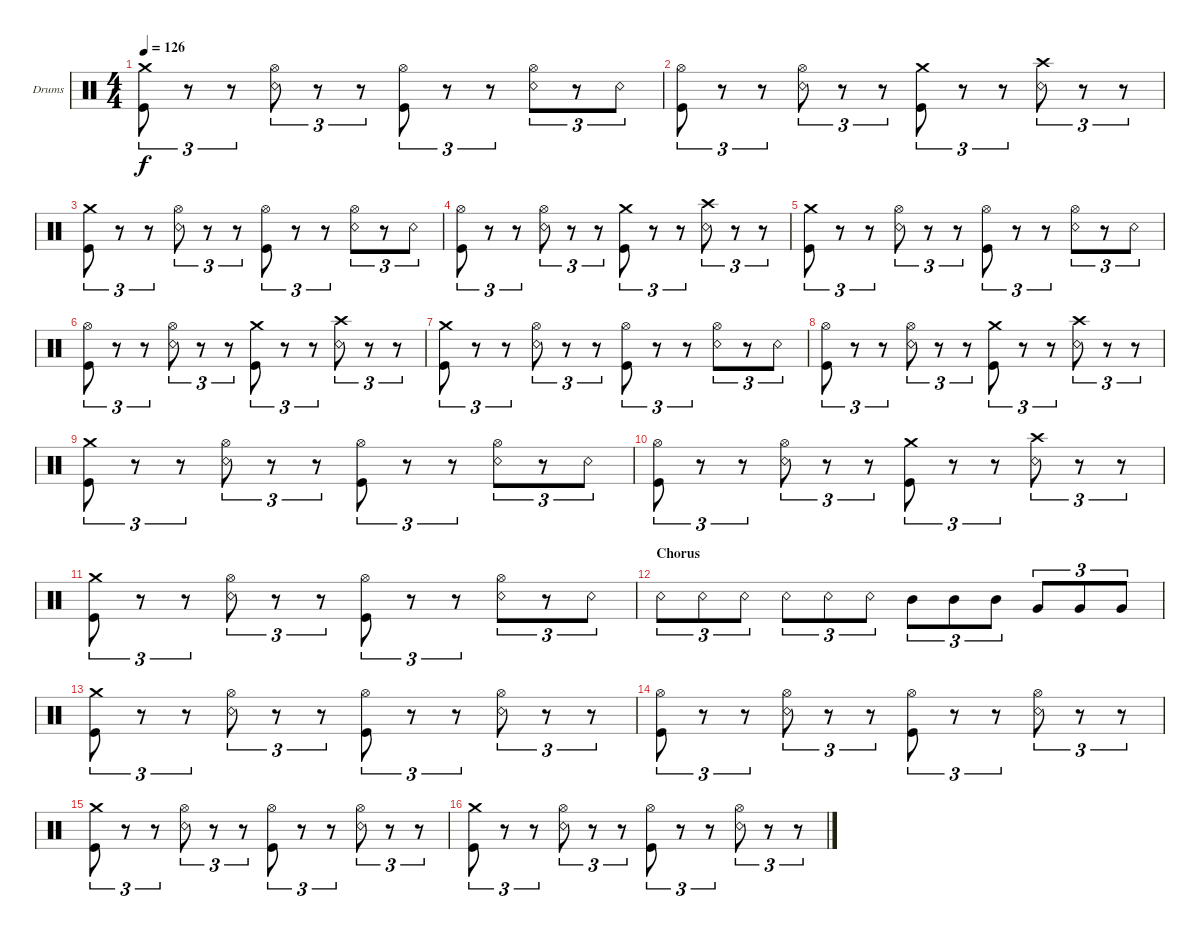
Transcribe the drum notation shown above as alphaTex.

\defaultSystemsLayout 4
\bracketExtendMode groupsimilarinstruments
\firstSystemTrackNameOrientation horizontal
\otherSystemsTrackNameOrientation horizontal
\track ("Dominic Howard" "Drums") {instrument percussion}
\staff {score}
\articulation defaults
\ts (4 4)
\tempo 126
\clef neutral
\ks c
("Kick (hit)" "Crash medium (hit)").8{tu (3 2) dy f} r.8{tu (3 2)} r.8{tu (3 2)} ("Snare (rim shot)" "Hi-Hat (open)").8{tu (3 2)} r.8{tu (3 2)} r.8{tu (3 2)} ("Kick (hit)" "Hi-Hat (open)").8{tu (3 2)} r.8{tu (3 2)} r.8{tu (3 2)} ("Snare (rim shot)" "Hi-Hat (open)").8{tu (3 2)} r.8{tu (3 2)} "Snare (rim shot)".8{tu (3 2)} |
("Kick (hit)" "Hi-Hat (open)").8{tu (3 2)} r.8{tu (3 2)} r.8{tu (3 2)} ("Snare (rim shot)" "Hi-Hat (open)").8{tu (3 2)} r.8{tu (3 2)} r.8{tu (3 2)} ("Kick (hit)" "Crash medium (hit)").8{tu (3 2)} r.8{tu (3 2)} r.8{tu (3 2)} ("Snare (rim shot)" "Crash high (hit)").8{tu (3 2)} r.8{tu (3 2)} r.8{tu (3 2)} |
("Kick (hit)" "Crash medium (hit)").8{tu (3 2)} r.8{tu (3 2)} r.8{tu (3 2)} ("Snare (rim shot)" "Hi-Hat (open)").8{tu (3 2)} r.8{tu (3 2)} r.8{tu (3 2)} ("Kick (hit)" "Hi-Hat (open)").8{tu (3 2)} r.8{tu (3 2)} r.8{tu (3 2)} ("Snare (rim shot)" "Hi-Hat (open)").8{tu (3 2)} r.8{tu (3 2)} "Snare (rim shot)".8{tu (3 2)} |
("Kick (hit)" "Hi-Hat (open)").8{tu (3 2)} r.8{tu (3 2)} r.8{tu (3 2)} ("Snare (rim shot)" "Hi-Hat (open)").8{tu (3 2)} r.8{tu (3 2)} r.8{tu (3 2)} ("Kick (hit)" "Crash medium (hit)").8{tu (3 2)} r.8{tu (3 2)} r.8{tu (3 2)} ("Snare (rim shot)" "Crash high (hit)").8{tu (3 2)} r.8{tu (3 2)} r.8{tu (3 2)} |
("Kick (hit)" "Crash medium (hit)").8{tu (3 2)} r.8{tu (3 2)} r.8{tu (3 2)} ("Snare (rim shot)" "Hi-Hat (open)").8{tu (3 2)} r.8{tu (3 2)} r.8{tu (3 2)} ("Kick (hit)" "Hi-Hat (open)").8{tu (3 2)} r.8{tu (3 2)} r.8{tu (3 2)} ("Snare (rim shot)" "Hi-Hat (open)").8{tu (3 2)} r.8{tu (3 2)} "Snare (rim shot)".8{tu (3 2)} |
("Kick (hit)" "Hi-Hat (open)").8{tu (3 2)} r.8{tu (3 2)} r.8{tu (3 2)} ("Snare (rim shot)" "Hi-Hat (open)").8{tu (3 2)} r.8{tu (3 2)} r.8{tu (3 2)} ("Kick (hit)" "Crash medium (hit)").8{tu (3 2)} r.8{tu (3 2)} r.8{tu (3 2)} ("Snare (rim shot)" "Crash high (hit)").8{tu (3 2)} r.8{tu (3 2)} r.8{tu (3 2)} |
("Kick (hit)" "Crash medium (hit)").8{tu (3 2)} r.8{tu (3 2)} r.8{tu (3 2)} ("Snare (rim shot)" "Hi-Hat (open)").8{tu (3 2)} r.8{tu (3 2)} r.8{tu (3 2)} ("Kick (hit)" "Hi-Hat (open)").8{tu (3 2)} r.8{tu (3 2)} r.8{tu (3 2)} ("Snare (rim shot)" "Hi-Hat (open)").8{tu (3 2)} r.8{tu (3 2)} "Snare (rim shot)".8{tu (3 2)} |
("Kick (hit)" "Hi-Hat (open)").8{tu (3 2)} r.8{tu (3 2)} r.8{tu (3 2)} ("Snare (rim shot)" "Hi-Hat (open)").8{tu (3 2)} r.8{tu (3 2)} r.8{tu (3 2)} ("Kick (hit)" "Crash medium (hit)").8{tu (3 2)} r.8{tu (3 2)} r.8{tu (3 2)} ("Snare (rim shot)" "Crash high (hit)").8{tu (3 2)} r.8{tu (3 2)} r.8{tu (3 2)} |
("Kick (hit)" "Crash medium (hit)").8{tu (3 2)} r.8{tu (3 2)} r.8{tu (3 2)} ("Snare (rim shot)" "Hi-Hat (open)").8{tu (3 2)} r.8{tu (3 2)} r.8{tu (3 2)} ("Kick (hit)" "Hi-Hat (open)").8{tu (3 2)} r.8{tu (3 2)} r.8{tu (3 2)} ("Snare (rim shot)" "Hi-Hat (open)").8{tu (3 2)} r.8{tu (3 2)} "Snare (rim shot)".8{tu (3 2)} |
("Kick (hit)" "Hi-Hat (open)").8{tu (3 2)} r.8{tu (3 2)} r.8{tu (3 2)} ("Snare (rim shot)" "Hi-Hat (open)").8{tu (3 2)} r.8{tu (3 2)} r.8{tu (3 2)} ("Kick (hit)" "Crash medium (hit)").8{tu (3 2)} r.8{tu (3 2)} r.8{tu (3 2)} ("Snare (rim shot)" "Crash high (hit)").8{tu (3 2)} r.8{tu (3 2)} r.8{tu (3 2)} |
("Kick (hit)" "Crash medium (hit)").8{tu (3 2)} r.8{tu (3 2)} r.8{tu (3 2)} ("Snare (rim shot)" "Hi-Hat (open)").8{tu (3 2)} r.8{tu (3 2)} r.8{tu (3 2)} ("Kick (hit)" "Hi-Hat (open)").8{tu (3 2)} r.8{tu (3 2)} r.8{tu (3 2)} ("Snare (rim shot)" "Hi-Hat (open)").8{tu (3 2)} r.8{tu (3 2)} "Snare (rim shot)".8{tu (3 2)} |
\section ("" "Chorus")
"Snare (rim shot)".8{tu (3 2)} "Snare (rim shot)".8{tu (3 2)} "Snare (rim shot)".8{tu (3 2)} "Snare (rim shot)".8{tu (3 2)} "Snare (rim shot)".8{tu (3 2)} "Snare (rim shot)".8{tu (3 2)} "Mid Tom (hit)".8{tu (3 2)} "Mid Tom (hit)".8{tu (3 2)} "Mid Tom (hit)".8{tu (3 2)} "Very Low Tom (hit)".8{tu (3 2)} "Very Low Tom (hit)".8{tu (3 2)} "Very Low Tom (hit)".8{tu (3 2)} |
("Kick (hit)" "Crash medium (hit)").8{tu (3 2)} r.8{tu (3 2)} r.8{tu (3 2)} ("Snare (rim shot)" "Hi-Hat (open)").8{tu (3 2)} r.8{tu (3 2)} r.8{tu (3 2)} ("Kick (hit)" "Hi-Hat (open)").8{tu (3 2)} r.8{tu (3 2)} r.8{tu (3 2)} ("Snare (rim shot)" "Hi-Hat (open)").8{tu (3 2)} r.8{tu (3 2)} r.8{tu (3 2)} |
("Kick (hit)" "Hi-Hat (open)").8{tu (3 2)} r.8{tu (3 2)} r.8{tu (3 2)} ("Snare (rim shot)" "Hi-Hat (open)").8{tu (3 2)} r.8{tu (3 2)} r.8{tu (3 2)} ("Kick (hit)" "Hi-Hat (open)").8{tu (3 2)} r.8{tu (3 2)} r.8{tu (3 2)} ("Snare (rim shot)" "Hi-Hat (open)").8{tu (3 2)} r.8{tu (3 2)} r.8{tu (3 2)} |
("Kick (hit)" "Crash medium (hit)").8{tu (3 2)} r.8{tu (3 2)} r.8{tu (3 2)} ("Snare (rim shot)" "Hi-Hat (open)").8{tu (3 2)} r.8{tu (3 2)} r.8{tu (3 2)} ("Kick (hit)" "Hi-Hat (open)").8{tu (3 2)} r.8{tu (3 2)} r.8{tu (3 2)} ("Snare (rim shot)" "Hi-Hat (open)").8{tu (3 2)} r.8{tu (3 2)} r.8{tu (3 2)} |
("Kick (hit)" "Crash medium (hit)").8{tu (3 2)} r.8{tu (3 2)} r.8{tu (3 2)} ("Snare (rim shot)" "Hi-Hat (open)").8{tu (3 2)} r.8{tu (3 2)} r.8{tu (3 2)} ("Kick (hit)" "Hi-Hat (open)").8{tu (3 2)} r.8{tu (3 2)} r.8{tu (3 2)} ("Snare (rim shot)" "Hi-Hat (open)").8{tu (3 2)} r.8{tu (3 2)} r.8{tu (3 2)}
